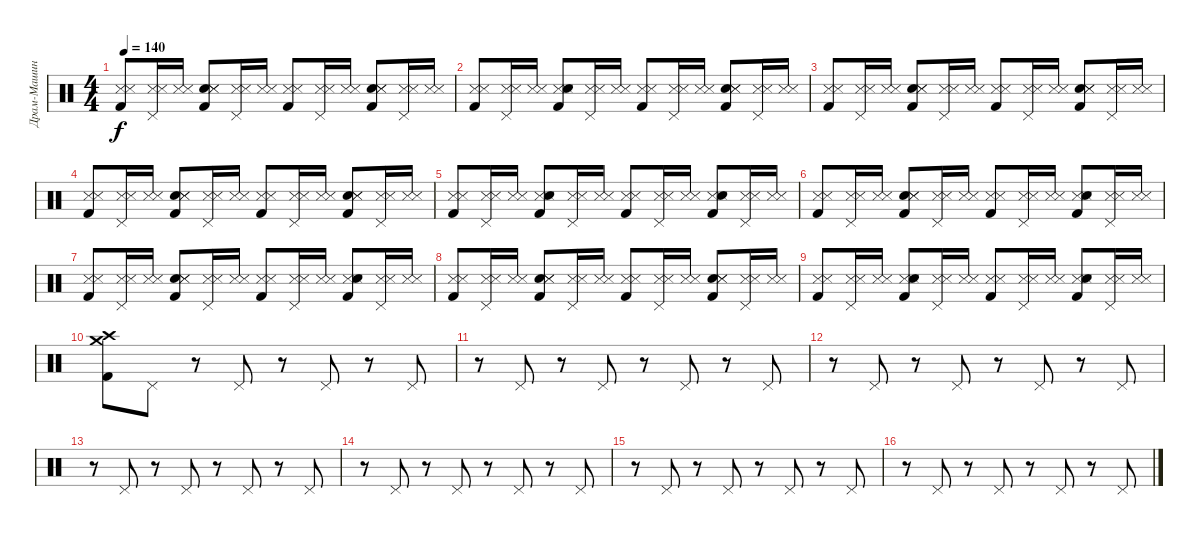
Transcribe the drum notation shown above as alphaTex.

\track ("Драм-Машина" "Драм-Машин") {instrument percussion}
\staff {score}
\articulation defaults
\ts (4 4)
\tempo 140
\clef neutral
\ks c
("Snare (side stick) 3" "Kick (hit) 2" "Metronome (hit)").8{dy f} ("Pedal Hi-Hat (hit)" "Snare (side stick) 3" "Metronome (hit)").16 ("Snare (side stick) 3" "Metronome (hit)").16 ("Snare (hit) 2" "Kick (hit) 2" "Snare (side stick) 3" "Metronome (hit)").8 ("Snare (side stick) 3" "Pedal Hi-Hat (hit)" "Metronome (hit)").16 ("Snare (side stick) 3" "Metronome (hit)").16 ("Kick (hit) 2" "Snare (side stick) 3" "Metronome (hit)").8 ("Pedal Hi-Hat (hit)" "Snare (side stick) 3" "Metronome (hit)").16 ("Snare (side stick) 3" "Metronome (hit)").16 ("Snare (hit) 2" "Snare (side stick) 3" "Kick (hit) 2" "Metronome (hit)").8 ("Pedal Hi-Hat (hit)" "Snare (side stick) 3" "Metronome (hit)").16 ("Snare (side stick) 3" "Metronome (hit)").16 |
("Kick (hit) 2" "Snare (side stick) 3" "Metronome (hit)").8 ("Pedal Hi-Hat (hit)" "Snare (side stick) 3" "Metronome (hit)").16 ("Snare (side stick) 3" "Metronome (hit)").16 ("Snare (side stick) 3" "Kick (hit) 2" "Snare (hit) 2" "Metronome (hit)").8 ("Pedal Hi-Hat (hit)" "Snare (side stick) 3" "Metronome (hit)").16 ("Snare (side stick) 3" "Metronome (hit)").16 ("Snare (side stick) 3" "Kick (hit) 2" "Metronome (hit)").8 ("Pedal Hi-Hat (hit)" "Snare (side stick) 3" "Metronome (hit)").16 ("Snare (side stick) 3" "Metronome (hit)").16 ("Snare (hit) 2" "Kick (hit) 2" "Snare (side stick) 3" "Metronome (hit)").8 ("Snare (side stick) 3" "Pedal Hi-Hat (hit)" "Metronome (hit)").16 ("Snare (side stick) 3" "Metronome (hit)").16 |
("Kick (hit) 2" "Snare (side stick) 3" "Metronome (hit)").8 ("Snare (side stick) 3" "Pedal Hi-Hat (hit)" "Metronome (hit)").16 ("Snare (side stick) 3" "Metronome (hit)").16 ("Snare (hit) 2" "Snare (side stick) 3" "Kick (hit) 2" "Metronome (hit)").8 ("Snare (side stick) 3" "Pedal Hi-Hat (hit)" "Metronome (hit)").16 ("Snare (side stick) 3" "Metronome (hit)").16 ("Kick (hit) 2" "Snare (side stick) 3" "Metronome (hit)").8 ("Pedal Hi-Hat (hit)" "Snare (side stick) 3" "Metronome (hit)").16 ("Snare (side stick) 3" "Metronome (hit)").16 ("Snare (hit) 2" "Kick (hit) 2" "Snare (side stick) 3" "Metronome (hit)").8 ("Snare (side stick) 3" "Pedal Hi-Hat (hit)" "Metronome (hit)").16 ("Snare (side stick) 3" "Metronome (hit)").16 |
("Kick (hit) 2" "Snare (side stick) 3" "Metronome (hit)").8 ("Snare (side stick) 3" "Pedal Hi-Hat (hit)" "Metronome (hit)").16 ("Snare (side stick) 3" "Metronome (hit)").16 ("Snare (hit) 2" "Snare (side stick) 3" "Kick (hit) 2" "Metronome (hit)").8 ("Snare (side stick) 3" "Pedal Hi-Hat (hit)" "Metronome (hit)").16 ("Snare (side stick) 3" "Metronome (hit)").16 ("Snare (side stick) 3" "Kick (hit) 2" "Metronome (hit)").8 ("Pedal Hi-Hat (hit)" "Snare (side stick) 3" "Metronome (hit)").16 ("Snare (side stick) 3" "Metronome (hit)").16 ("Snare (hit) 2" "Snare (side stick) 3" "Kick (hit) 2" "Metronome (hit)").8 ("Pedal Hi-Hat (hit)" "Snare (side stick) 3" "Metronome (hit)").16 ("Snare (side stick) 3" "Metronome (hit)").16 |
("Kick (hit) 2" "Snare (side stick) 3" "Metronome (hit)").8 ("Pedal Hi-Hat (hit)" "Snare (side stick) 3" "Metronome (hit)").16 ("Snare (side stick) 3" "Metronome (hit)").16 ("Kick (hit) 2" "Snare (side stick) 3" "Snare (hit) 2" "Metronome (hit)").8 ("Snare (side stick) 3" "Pedal Hi-Hat (hit)" "Metronome (hit)").16 ("Snare (side stick) 3" "Metronome (hit)").16 ("Kick (hit) 2" "Snare (side stick) 3" "Metronome (hit)").8 ("Snare (side stick) 3" "Pedal Hi-Hat (hit)" "Metronome (hit)").16 ("Snare (side stick) 3" "Metronome (hit)").16 ("Kick (hit) 2" "Snare (side stick) 3" "Snare (hit) 2" "Metronome (hit)").8 ("Snare (side stick) 3" "Pedal Hi-Hat (hit)" "Metronome (hit)").16 ("Snare (side stick) 3" "Metronome (hit)").16 |
("Snare (side stick) 3" "Kick (hit) 2" "Metronome (hit)").8 ("Pedal Hi-Hat (hit)" "Snare (side stick) 3" "Metronome (hit)").16 ("Snare (side stick) 3" "Metronome (hit)").16 ("Snare (hit) 2" "Kick (hit) 2" "Snare (side stick) 3" "Metronome (hit)").8 ("Snare (side stick) 3" "Pedal Hi-Hat (hit)" "Metronome (hit)").16 ("Snare (side stick) 3" "Metronome (hit)").16 ("Kick (hit) 2" "Snare (side stick) 3" "Metronome (hit)").8 ("Pedal Hi-Hat (hit)" "Snare (side stick) 3" "Metronome (hit)").16 ("Snare (side stick) 3" "Metronome (hit)").16 ("Snare (side stick) 3" "Snare (hit) 2" "Kick (hit) 2" "Metronome (hit)").8 ("Pedal Hi-Hat (hit)" "Snare (side stick) 3" "Metronome (hit)").16 ("Snare (side stick) 3" "Metronome (hit)").16 |
("Snare (side stick) 3" "Kick (hit) 2" "Metronome (hit)").8 ("Pedal Hi-Hat (hit)" "Snare (side stick) 3" "Metronome (hit)").16 ("Snare (side stick) 3" "Metronome (hit)").16 ("Snare (hit) 2" "Snare (side stick) 3" "Kick (hit) 2" "Metronome (hit)").8 ("Pedal Hi-Hat (hit)" "Snare (side stick) 3" "Metronome (hit)").16 ("Snare (side stick) 3" "Metronome (hit)").16 ("Kick (hit) 2" "Snare (side stick) 3" "Metronome (hit)").8 ("Pedal Hi-Hat (hit)" "Snare (side stick) 3" "Metronome (hit)").16 ("Snare (side stick) 3" "Metronome (hit)").16 ("Snare (side stick) 3" "Kick (hit) 2" "Snare (hit) 2" "Metronome (hit)").8 ("Snare (side stick) 3" "Pedal Hi-Hat (hit)" "Metronome (hit)").16 ("Snare (side stick) 3" "Metronome (hit)").16 |
("Snare (side stick) 3" "Kick (hit) 2" "Metronome (hit)").8 ("Pedal Hi-Hat (hit)" "Snare (side stick) 3" "Metronome (hit)").16 ("Snare (side stick) 3" "Metronome (hit)").16 ("Snare (hit) 2" "Snare (side stick) 3" "Kick (hit) 2" "Metronome (hit)").8 ("Snare (side stick) 3" "Pedal Hi-Hat (hit)" "Metronome (hit)").16 ("Snare (side stick) 3" "Metronome (hit)").16 ("Snare (side stick) 3" "Kick (hit) 2" "Metronome (hit)").8 ("Snare (side stick) 3" "Pedal Hi-Hat (hit)" "Metronome (hit)").16 ("Snare (side stick) 3" "Metronome (hit)").16 ("Snare (hit) 2" "Kick (hit) 2" "Snare (side stick) 3" "Metronome (hit)").8 ("Pedal Hi-Hat (hit)" "Snare (side stick) 3" "Metronome (hit)").16 ("Snare (side stick) 3" "Metronome (hit)").16 |
("Snare (side stick) 3" "Kick (hit) 2" "Metronome (hit)").8 ("Pedal Hi-Hat (hit)" "Snare (side stick) 3" "Metronome (hit)").16 ("Snare (side stick) 3" "Metronome (hit)").16 ("Snare (side stick) 3" "Kick (hit) 2" "Snare (hit) 2" "Metronome (hit)").8 ("Pedal Hi-Hat (hit)" "Snare (side stick) 3" "Metronome (hit)").16 ("Snare (side stick) 3" "Metronome (hit)").16 ("Snare (side stick) 3" "Kick (hit) 2" "Metronome (hit)").8 ("Pedal Hi-Hat (hit)" "Snare (side stick) 3" "Metronome (hit)").16 ("Snare (side stick) 3" "Metronome (hit)").16 ("Snare (side stick) 3" "Snare (hit) 2" "Kick (hit) 2" "Metronome (hit)").8 ("Snare (side stick) 3" "Pedal Hi-Hat (hit)" "Metronome (hit)").16 ("Snare (side stick) 3" "Metronome (hit)").16 |
("Crash medium (hit)" "Crash high (hit)" "Kick (hit) 2").8 "Pedal Hi-Hat (hit)".8 r.8 "Pedal Hi-Hat (hit)".8 r.8 "Pedal Hi-Hat (hit)".8 r.8 "Pedal Hi-Hat (hit)".8 |
r.8 "Pedal Hi-Hat (hit)".8 r.8 "Pedal Hi-Hat (hit)".8 r.8 "Pedal Hi-Hat (hit)".8 r.8 "Pedal Hi-Hat (hit)".8 |
r.8 "Pedal Hi-Hat (hit)".8 r.8 "Pedal Hi-Hat (hit)".8 r.8 "Pedal Hi-Hat (hit)".8 r.8 "Pedal Hi-Hat (hit)".8 |
r.8 "Pedal Hi-Hat (hit)".8 r.8 "Pedal Hi-Hat (hit)".8 r.8 "Pedal Hi-Hat (hit)".8 r.8 "Pedal Hi-Hat (hit)".8 |
r.8 "Pedal Hi-Hat (hit)".8 r.8 "Pedal Hi-Hat (hit)".8 r.8 "Pedal Hi-Hat (hit)".8 r.8 "Pedal Hi-Hat (hit)".8 |
r.8 "Pedal Hi-Hat (hit)".8 r.8 "Pedal Hi-Hat (hit)".8 r.8 "Pedal Hi-Hat (hit)".8 r.8 "Pedal Hi-Hat (hit)".8 |
r.8 "Pedal Hi-Hat (hit)".8 r.8 "Pedal Hi-Hat (hit)".8 r.8 "Pedal Hi-Hat (hit)".8 r.8 "Pedal Hi-Hat (hit)".8
